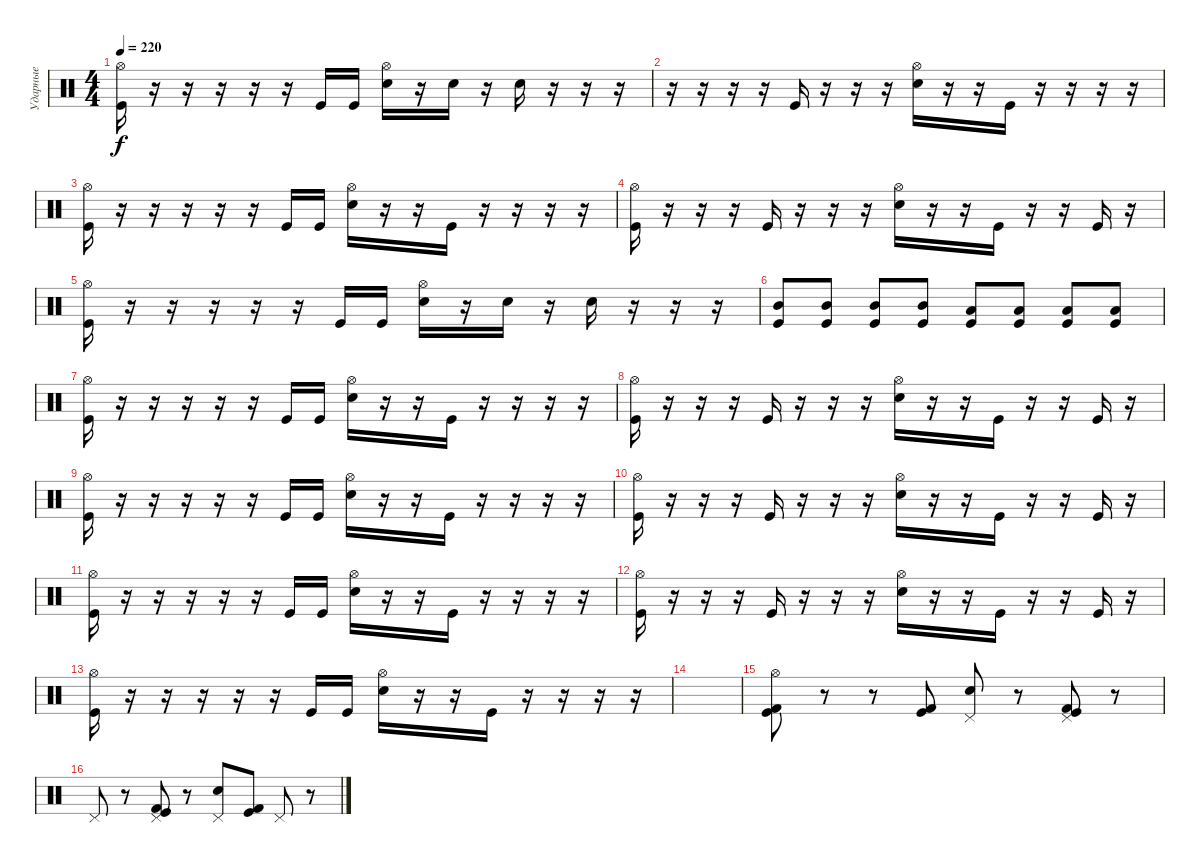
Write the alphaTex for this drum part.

\track ("Ударные" "Ударные") {instrument percussion}
\staff {score}
\articulation defaults
\ts (4 4)
\tempo 220
\clef neutral
\ks c
("Hi-Hat (open)" "Kick (hit)").16{dy f} r.16 r.16 r.16 r.16 r.16 "Kick (hit)".16 "Kick (hit)".16 ("Hi-Hat (open)" "Electric Snare (hit)").16 r.16 "Electric Snare (hit)".16 r.16 "Electric Snare (hit)".16 r.16 r.16 r.16 |
r.16 r.16 r.16 r.16 "Kick (hit)".16 r.16 r.16 r.16 ("Hi-Hat (open)" "Electric Snare (hit)").16 r.16 r.16 "Kick (hit)".16 r.16 r.16 r.16 r.16 |
("Hi-Hat (open)" "Kick (hit)").16 r.16 r.16 r.16 r.16 r.16 "Kick (hit)".16 "Kick (hit)".16 ("Hi-Hat (open)" "Electric Snare (hit)").16 r.16 r.16 "Kick (hit)".16 r.16 r.16 r.16 r.16 |
("Hi-Hat (open)" "Kick (hit)").16 r.16 r.16 r.16 "Kick (hit)".16 r.16 r.16 r.16 ("Hi-Hat (open)" "Electric Snare (hit)").16 r.16 r.16 "Kick (hit)".16 r.16 r.16 "Kick (hit)".16 r.16 |
("Hi-Hat (open)" "Kick (hit)").16 r.16 r.16 r.16 r.16 r.16 "Kick (hit)".16 "Kick (hit)".16 ("Hi-Hat (open)" "Electric Snare (hit)").16 r.16 "Electric Snare (hit)".16 r.16 "Electric Snare (hit)".16 r.16 r.16 r.16 |
("Mid Tom (hit)" "Kick (hit)").8 ("Mid Tom (hit)" "Kick (hit)").8 ("Mid Tom (hit)" "Kick (hit)").8 ("Mid Tom (hit)" "Kick (hit)").8 ("Low Tom (hit)" "Kick (hit)").8 ("Low Tom (hit)" "Kick (hit)").8 ("Low Tom (hit)" "Kick (hit)").8 ("Low Tom (hit)" "Kick (hit)").8 |
("Hi-Hat (open)" "Kick (hit)").16 r.16 r.16 r.16 r.16 r.16 "Kick (hit)".16 "Kick (hit)".16 ("Hi-Hat (open)" "Electric Snare (hit)").16 r.16 r.16 "Kick (hit)".16 r.16 r.16 r.16 r.16 |
("Hi-Hat (open)" "Kick (hit)").16 r.16 r.16 r.16 "Kick (hit)".16 r.16 r.16 r.16 ("Hi-Hat (open)" "Electric Snare (hit)").16 r.16 r.16 "Kick (hit)".16 r.16 r.16 "Kick (hit)".16 r.16 |
("Hi-Hat (open)" "Kick (hit)").16 r.16 r.16 r.16 r.16 r.16 "Kick (hit)".16 "Kick (hit)".16 ("Hi-Hat (open)" "Electric Snare (hit)").16 r.16 r.16 "Kick (hit)".16 r.16 r.16 r.16 r.16 |
("Hi-Hat (open)" "Kick (hit)").16 r.16 r.16 r.16 "Kick (hit)".16 r.16 r.16 r.16 ("Hi-Hat (open)" "Electric Snare (hit)").16 r.16 r.16 "Kick (hit)".16 r.16 r.16 "Kick (hit)".16 r.16 |
("Hi-Hat (open)" "Kick (hit)").16 r.16 r.16 r.16 r.16 r.16 "Kick (hit)".16 "Kick (hit)".16 ("Hi-Hat (open)" "Electric Snare (hit)").16 r.16 r.16 "Kick (hit)".16 r.16 r.16 r.16 r.16 |
("Hi-Hat (open)" "Kick (hit)").16 r.16 r.16 r.16 "Kick (hit)".16 r.16 r.16 r.16 ("Hi-Hat (open)" "Electric Snare (hit)").16 r.16 r.16 "Kick (hit)".16 r.16 r.16 "Kick (hit)".16 r.16 |
("Hi-Hat (open)" "Kick (hit)").16 r.16 r.16 r.16 r.16 r.16 "Kick (hit)".16 "Kick (hit)".16 ("Hi-Hat (open)" "Electric Snare (hit)").16 r.16 r.16 "Kick (hit)".16 r.16 r.16 r.16 r.16 |
|
("Hi-Hat (open)" "Kick (hit)" "Kick (hit) 2").8 r.8 r.8 ("Kick (hit)" "Kick (hit) 2").8 ("Pedal Hi-Hat (hit)" "Electric Snare (hit)").8 r.8 ("Pedal Hi-Hat (hit)" "Kick (hit)" "Kick (hit) 2").8 r.8 |
"Pedal Hi-Hat (hit)".8 r.8 ("Pedal Hi-Hat (hit)" "Kick (hit)" "Kick (hit) 2").8 r.8 ("Pedal Hi-Hat (hit)" "Electric Snare (hit)").8 ("Kick (hit)" "Kick (hit) 2").8 "Pedal Hi-Hat (hit)".8 r.8
